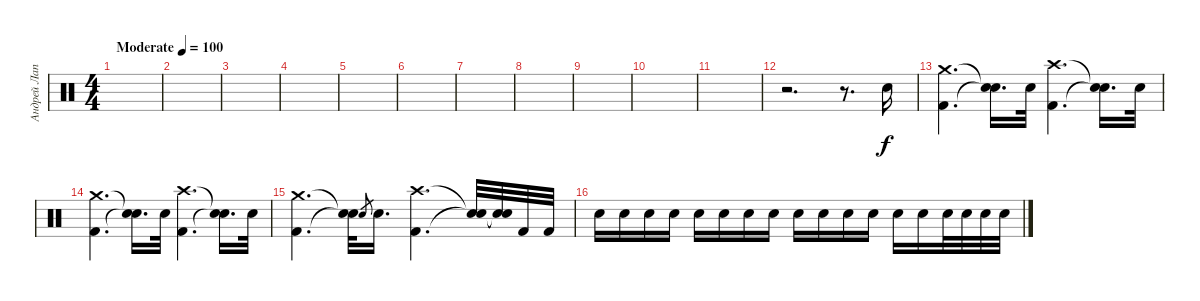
\track ("Андрей Лаптев" "Андрей Лап") {instrument percussion}
\staff {score}
\articulation defaults
\ts (4 4)
\tempo (100 "Moderate")
\clef neutral
\ks c
|
|
|
|
|
|
|
|
|
|
|
r.2{d} r.8{d} "Snare (hit) 2".16 |
("Crash medium (hit)" "Kick (hit) 2").4{d} ("Snare (hit)"{t} "Snare (hit)"{t}).16{d} "Snare (hit) 2".32 ("Crash high (hit)" "Kick (hit) 2").4{d} ("Snare (hit)"{t} "Snare (hit)"{t}).16{d} "Snare (hit) 2".32 |
("Crash medium (hit)" "Kick (hit) 2").4{d} ("Snare (hit)"{t} "Snare (hit)"{t}).16{d} "Snare (hit) 2".32 ("Crash high (hit)" "Kick (hit) 2").4{d} ("Snare (hit)"{t} "Snare (hit)"{t}).16{d} "Snare (hit) 2".32 |
("Crash medium (hit)" "Kick (hit) 2").4{d} ("Snare (hit)"{t} "Snare (hit)"{t}).32 "Snare (hit) 2".8{gr} "Snare (hit) 2".16{d} ("Crash high (hit)" "Kick (hit) 2").4{d} ("Snare (hit)"{t} "Snare (hit)"{t}).32 ("Snare (hit)"{t} "Snare (hit)"{t}).32 "Kick (hit) 2".32 "Kick (hit) 2".32 |
"Snare (hit) 2".16 "Snare (hit) 2".16 "Snare (hit) 2".16 "Snare (hit) 2".16 "Snare (hit) 2".16 "Snare (hit) 2".16 "Snare (hit) 2".16 "Snare (hit) 2".16 "Snare (hit) 2".16 "Snare (hit) 2".16 "Snare (hit) 2".16 "Snare (hit) 2".16 "Snare (hit) 2".16 "Snare (hit) 2".16 "Snare (hit) 2".32 "Snare (hit) 2".32 "Snare (hit) 2".32 "Snare (hit) 2".32
